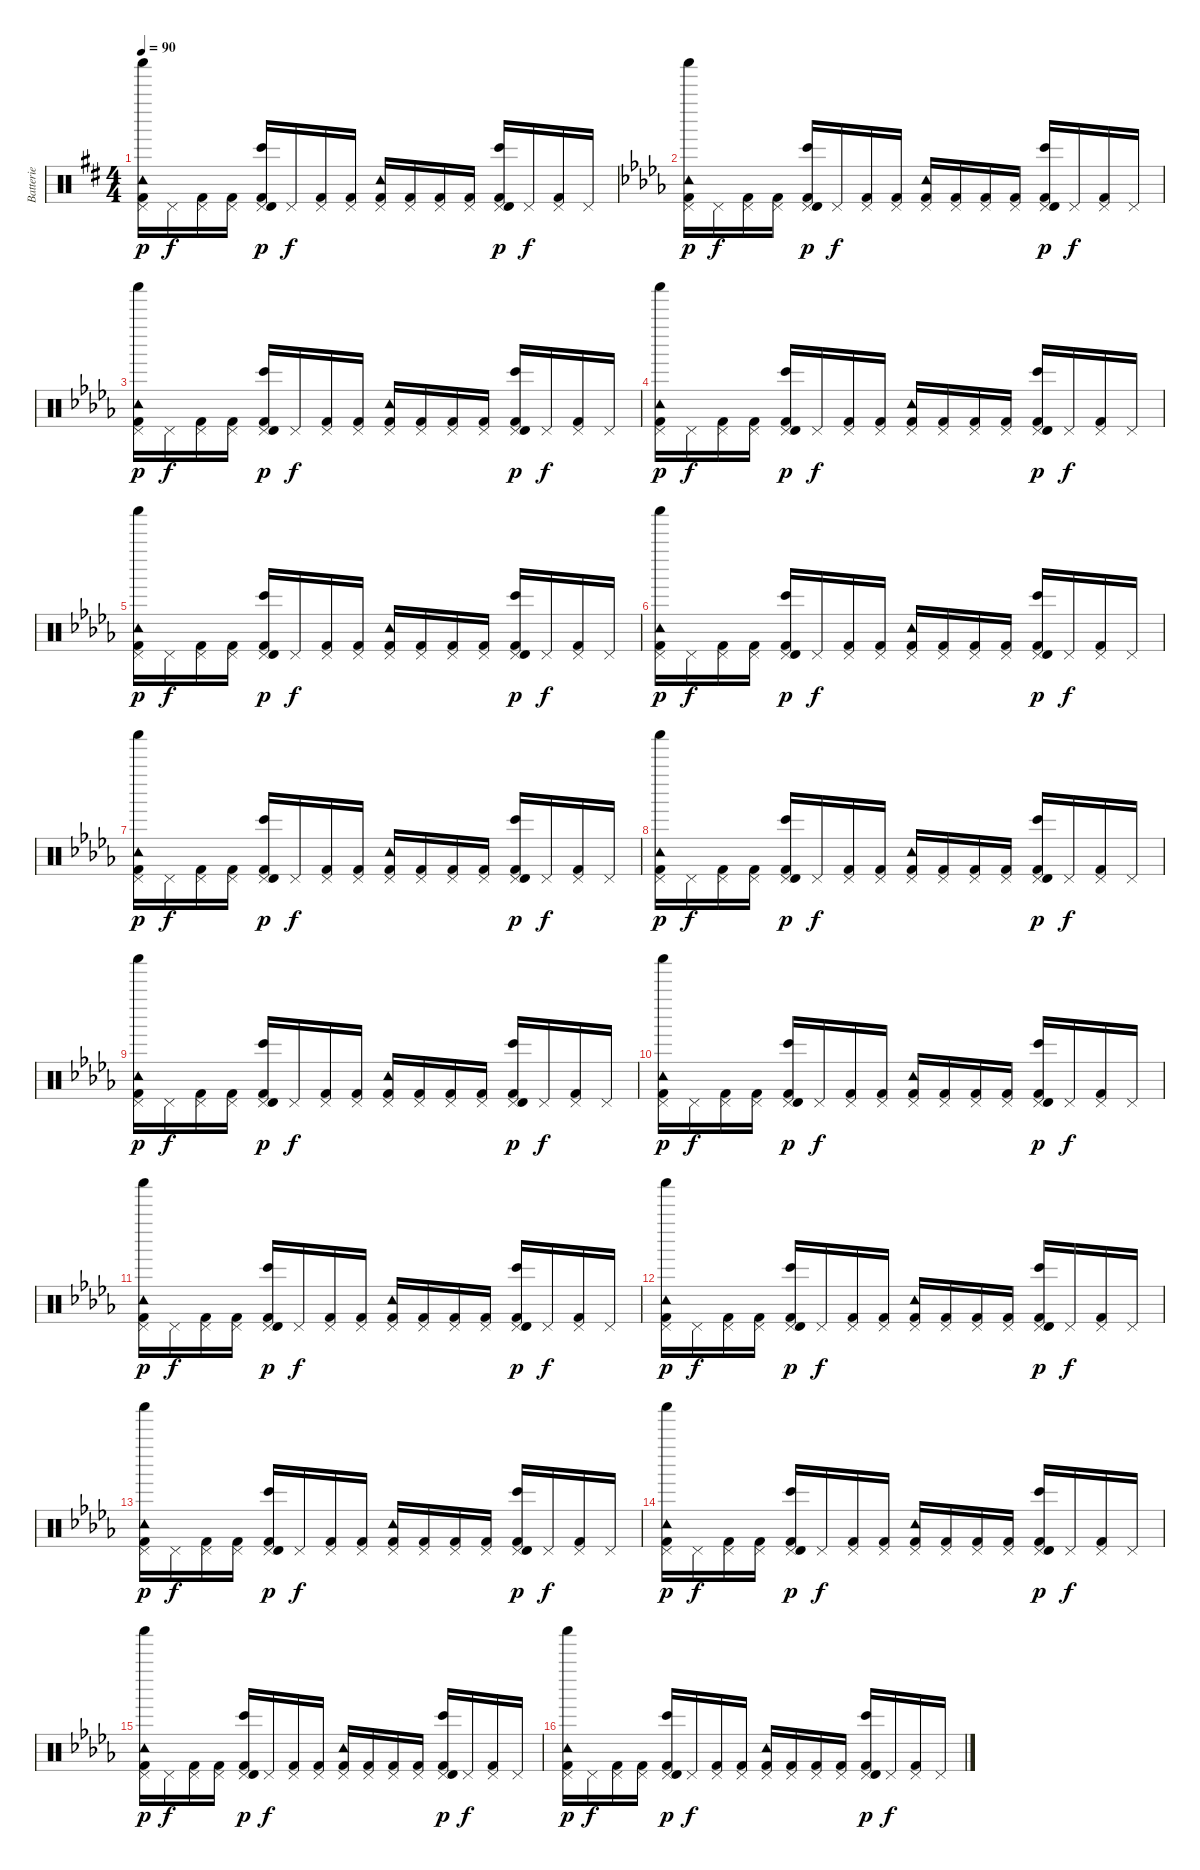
\track ("Batterie" "Batterie") {instrument percussion}
\staff {score}
\articulation defaults
\ts (4 4)
\tempo 90
\clef neutral
\ks d
("Shaker (hit)" "Tambourine (hit)" "Pedal Hi-Hat (hit)" "Kick (hit) 2").16{dy p} "Pedal Hi-Hat (hit)".16{dy f} ("Pedal Hi-Hat (hit)" "Kick (hit) 2").16 ("Pedal Hi-Hat (hit)" "Kick (hit) 2").16 ("Pedal Hi-Hat (hit)" "Bongo High (hit)" "Timbale high (hit)" "Kick (hit) 2").16{dy p} "Pedal Hi-Hat (hit)".16{dy f} ("Pedal Hi-Hat (hit)" "Kick (hit) 2").16 ("Pedal Hi-Hat (hit)" "Kick (hit) 2").16 ("Tambourine (hit)" "Pedal Hi-Hat (hit)" "Kick (hit) 2").16 ("Pedal Hi-Hat (hit)" "Kick (hit) 2").16 ("Pedal Hi-Hat (hit)" "Kick (hit) 2").16 ("Pedal Hi-Hat (hit)" "Kick (hit) 2").16 ("Pedal Hi-Hat (hit)" "Bongo High (hit)" "Timbale high (hit)" "Kick (hit) 2").16{dy p} "Pedal Hi-Hat (hit)".16{dy f} ("Pedal Hi-Hat (hit)" "Kick (hit) 2").16 "Pedal Hi-Hat (hit)".16 |
\ks db
("Shaker (hit)" "Tambourine (hit)" "Pedal Hi-Hat (hit)" "Kick (hit) 2").16{dy p} "Pedal Hi-Hat (hit)".16{dy f} ("Pedal Hi-Hat (hit)" "Kick (hit) 2").16 ("Pedal Hi-Hat (hit)" "Kick (hit) 2").16 ("Pedal Hi-Hat (hit)" "Bongo High (hit)" "Timbale high (hit)" "Kick (hit) 2").16{dy p} "Pedal Hi-Hat (hit)".16{dy f} ("Pedal Hi-Hat (hit)" "Kick (hit) 2").16 ("Pedal Hi-Hat (hit)" "Kick (hit) 2").16 ("Tambourine (hit)" "Pedal Hi-Hat (hit)" "Kick (hit) 2").16 ("Pedal Hi-Hat (hit)" "Kick (hit) 2").16 ("Pedal Hi-Hat (hit)" "Kick (hit) 2").16 ("Pedal Hi-Hat (hit)" "Kick (hit) 2").16 ("Pedal Hi-Hat (hit)" "Bongo High (hit)" "Timbale high (hit)" "Kick (hit) 2").16{dy p} "Pedal Hi-Hat (hit)".16{dy f} ("Pedal Hi-Hat (hit)" "Kick (hit) 2").16 "Pedal Hi-Hat (hit)".16 |
("Shaker (hit)" "Tambourine (hit)" "Pedal Hi-Hat (hit)" "Kick (hit) 2").16{dy p} "Pedal Hi-Hat (hit)".16{dy f} ("Pedal Hi-Hat (hit)" "Kick (hit) 2").16 ("Pedal Hi-Hat (hit)" "Kick (hit) 2").16 ("Pedal Hi-Hat (hit)" "Bongo High (hit)" "Timbale high (hit)" "Kick (hit) 2").16{dy p} "Pedal Hi-Hat (hit)".16{dy f} ("Pedal Hi-Hat (hit)" "Kick (hit) 2").16 ("Pedal Hi-Hat (hit)" "Kick (hit) 2").16 ("Tambourine (hit)" "Pedal Hi-Hat (hit)" "Kick (hit) 2").16 ("Pedal Hi-Hat (hit)" "Kick (hit) 2").16 ("Pedal Hi-Hat (hit)" "Kick (hit) 2").16 ("Pedal Hi-Hat (hit)" "Kick (hit) 2").16 ("Pedal Hi-Hat (hit)" "Bongo High (hit)" "Timbale high (hit)" "Kick (hit) 2").16{dy p} "Pedal Hi-Hat (hit)".16{dy f} ("Pedal Hi-Hat (hit)" "Kick (hit) 2").16 "Pedal Hi-Hat (hit)".16 |
("Shaker (hit)" "Tambourine (hit)" "Pedal Hi-Hat (hit)" "Kick (hit) 2").16{dy p} "Pedal Hi-Hat (hit)".16{dy f} ("Pedal Hi-Hat (hit)" "Kick (hit) 2").16 ("Pedal Hi-Hat (hit)" "Kick (hit) 2").16 ("Pedal Hi-Hat (hit)" "Bongo High (hit)" "Timbale high (hit)" "Kick (hit) 2").16{dy p} "Pedal Hi-Hat (hit)".16{dy f} ("Pedal Hi-Hat (hit)" "Kick (hit) 2").16 ("Pedal Hi-Hat (hit)" "Kick (hit) 2").16 ("Tambourine (hit)" "Pedal Hi-Hat (hit)" "Kick (hit) 2").16 ("Pedal Hi-Hat (hit)" "Kick (hit) 2").16 ("Pedal Hi-Hat (hit)" "Kick (hit) 2").16 ("Pedal Hi-Hat (hit)" "Kick (hit) 2").16 ("Pedal Hi-Hat (hit)" "Bongo High (hit)" "Timbale high (hit)" "Kick (hit) 2").16{dy p} "Pedal Hi-Hat (hit)".16{dy f} ("Pedal Hi-Hat (hit)" "Kick (hit) 2").16 "Pedal Hi-Hat (hit)".16 |
("Shaker (hit)" "Tambourine (hit)" "Pedal Hi-Hat (hit)" "Kick (hit) 2").16{dy p} "Pedal Hi-Hat (hit)".16{dy f} ("Pedal Hi-Hat (hit)" "Kick (hit) 2").16 ("Pedal Hi-Hat (hit)" "Kick (hit) 2").16 ("Pedal Hi-Hat (hit)" "Bongo High (hit)" "Timbale high (hit)" "Kick (hit) 2").16{dy p} "Pedal Hi-Hat (hit)".16{dy f} ("Pedal Hi-Hat (hit)" "Kick (hit) 2").16 ("Pedal Hi-Hat (hit)" "Kick (hit) 2").16 ("Tambourine (hit)" "Pedal Hi-Hat (hit)" "Kick (hit) 2").16 ("Pedal Hi-Hat (hit)" "Kick (hit) 2").16 ("Pedal Hi-Hat (hit)" "Kick (hit) 2").16 ("Pedal Hi-Hat (hit)" "Kick (hit) 2").16 ("Pedal Hi-Hat (hit)" "Bongo High (hit)" "Timbale high (hit)" "Kick (hit) 2").16{dy p} "Pedal Hi-Hat (hit)".16{dy f} ("Pedal Hi-Hat (hit)" "Kick (hit) 2").16 "Pedal Hi-Hat (hit)".16 |
("Shaker (hit)" "Tambourine (hit)" "Pedal Hi-Hat (hit)" "Kick (hit) 2").16{dy p} "Pedal Hi-Hat (hit)".16{dy f} ("Pedal Hi-Hat (hit)" "Kick (hit) 2").16 ("Pedal Hi-Hat (hit)" "Kick (hit) 2").16 ("Pedal Hi-Hat (hit)" "Bongo High (hit)" "Timbale high (hit)" "Kick (hit) 2").16{dy p} "Pedal Hi-Hat (hit)".16{dy f} ("Pedal Hi-Hat (hit)" "Kick (hit) 2").16 ("Pedal Hi-Hat (hit)" "Kick (hit) 2").16 ("Tambourine (hit)" "Pedal Hi-Hat (hit)" "Kick (hit) 2").16 ("Pedal Hi-Hat (hit)" "Kick (hit) 2").16 ("Pedal Hi-Hat (hit)" "Kick (hit) 2").16 ("Pedal Hi-Hat (hit)" "Kick (hit) 2").16 ("Pedal Hi-Hat (hit)" "Bongo High (hit)" "Timbale high (hit)" "Kick (hit) 2").16{dy p} "Pedal Hi-Hat (hit)".16{dy f} ("Pedal Hi-Hat (hit)" "Kick (hit) 2").16 "Pedal Hi-Hat (hit)".16 |
("Shaker (hit)" "Tambourine (hit)" "Pedal Hi-Hat (hit)" "Kick (hit) 2").16{dy p} "Pedal Hi-Hat (hit)".16{dy f} ("Pedal Hi-Hat (hit)" "Kick (hit) 2").16 ("Pedal Hi-Hat (hit)" "Kick (hit) 2").16 ("Pedal Hi-Hat (hit)" "Bongo High (hit)" "Timbale high (hit)" "Kick (hit) 2").16{dy p} "Pedal Hi-Hat (hit)".16{dy f} ("Pedal Hi-Hat (hit)" "Kick (hit) 2").16 ("Pedal Hi-Hat (hit)" "Kick (hit) 2").16 ("Tambourine (hit)" "Pedal Hi-Hat (hit)" "Kick (hit) 2").16 ("Pedal Hi-Hat (hit)" "Kick (hit) 2").16 ("Pedal Hi-Hat (hit)" "Kick (hit) 2").16 ("Pedal Hi-Hat (hit)" "Kick (hit) 2").16 ("Pedal Hi-Hat (hit)" "Bongo High (hit)" "Timbale high (hit)" "Kick (hit) 2").16{dy p} "Pedal Hi-Hat (hit)".16{dy f} ("Pedal Hi-Hat (hit)" "Kick (hit) 2").16 "Pedal Hi-Hat (hit)".16 |
("Shaker (hit)" "Tambourine (hit)" "Pedal Hi-Hat (hit)" "Kick (hit) 2").16{dy p} "Pedal Hi-Hat (hit)".16{dy f} ("Pedal Hi-Hat (hit)" "Kick (hit) 2").16 ("Pedal Hi-Hat (hit)" "Kick (hit) 2").16 ("Pedal Hi-Hat (hit)" "Bongo High (hit)" "Timbale high (hit)" "Kick (hit) 2").16{dy p} "Pedal Hi-Hat (hit)".16{dy f} ("Pedal Hi-Hat (hit)" "Kick (hit) 2").16 ("Pedal Hi-Hat (hit)" "Kick (hit) 2").16 ("Tambourine (hit)" "Pedal Hi-Hat (hit)" "Kick (hit) 2").16 ("Pedal Hi-Hat (hit)" "Kick (hit) 2").16 ("Pedal Hi-Hat (hit)" "Kick (hit) 2").16 ("Pedal Hi-Hat (hit)" "Kick (hit) 2").16 ("Pedal Hi-Hat (hit)" "Bongo High (hit)" "Timbale high (hit)" "Kick (hit) 2").16{dy p} "Pedal Hi-Hat (hit)".16{dy f} ("Pedal Hi-Hat (hit)" "Kick (hit) 2").16 "Pedal Hi-Hat (hit)".16 |
("Shaker (hit)" "Tambourine (hit)" "Pedal Hi-Hat (hit)" "Kick (hit) 2").16{dy p} "Pedal Hi-Hat (hit)".16{dy f} ("Pedal Hi-Hat (hit)" "Kick (hit) 2").16 ("Pedal Hi-Hat (hit)" "Kick (hit) 2").16 ("Pedal Hi-Hat (hit)" "Bongo High (hit)" "Timbale high (hit)" "Kick (hit) 2").16{dy p} "Pedal Hi-Hat (hit)".16{dy f} ("Pedal Hi-Hat (hit)" "Kick (hit) 2").16 ("Pedal Hi-Hat (hit)" "Kick (hit) 2").16 ("Tambourine (hit)" "Pedal Hi-Hat (hit)" "Kick (hit) 2").16 ("Pedal Hi-Hat (hit)" "Kick (hit) 2").16 ("Pedal Hi-Hat (hit)" "Kick (hit) 2").16 ("Pedal Hi-Hat (hit)" "Kick (hit) 2").16 ("Pedal Hi-Hat (hit)" "Bongo High (hit)" "Timbale high (hit)" "Kick (hit) 2").16{dy p} "Pedal Hi-Hat (hit)".16{dy f} ("Pedal Hi-Hat (hit)" "Kick (hit) 2").16 "Pedal Hi-Hat (hit)".16 |
("Shaker (hit)" "Tambourine (hit)" "Pedal Hi-Hat (hit)" "Kick (hit) 2").16{dy p} "Pedal Hi-Hat (hit)".16{dy f} ("Pedal Hi-Hat (hit)" "Kick (hit) 2").16 ("Pedal Hi-Hat (hit)" "Kick (hit) 2").16 ("Pedal Hi-Hat (hit)" "Bongo High (hit)" "Timbale high (hit)" "Kick (hit) 2").16{dy p} "Pedal Hi-Hat (hit)".16{dy f} ("Pedal Hi-Hat (hit)" "Kick (hit) 2").16 ("Pedal Hi-Hat (hit)" "Kick (hit) 2").16 ("Tambourine (hit)" "Pedal Hi-Hat (hit)" "Kick (hit) 2").16 ("Pedal Hi-Hat (hit)" "Kick (hit) 2").16 ("Pedal Hi-Hat (hit)" "Kick (hit) 2").16 ("Pedal Hi-Hat (hit)" "Kick (hit) 2").16 ("Pedal Hi-Hat (hit)" "Bongo High (hit)" "Timbale high (hit)" "Kick (hit) 2").16{dy p} "Pedal Hi-Hat (hit)".16{dy f} ("Pedal Hi-Hat (hit)" "Kick (hit) 2").16 "Pedal Hi-Hat (hit)".16 |
("Shaker (hit)" "Tambourine (hit)" "Pedal Hi-Hat (hit)" "Kick (hit) 2").16{dy p} "Pedal Hi-Hat (hit)".16{dy f} ("Pedal Hi-Hat (hit)" "Kick (hit) 2").16 ("Pedal Hi-Hat (hit)" "Kick (hit) 2").16 ("Pedal Hi-Hat (hit)" "Bongo High (hit)" "Timbale high (hit)" "Kick (hit) 2").16{dy p} "Pedal Hi-Hat (hit)".16{dy f} ("Pedal Hi-Hat (hit)" "Kick (hit) 2").16 ("Pedal Hi-Hat (hit)" "Kick (hit) 2").16 ("Tambourine (hit)" "Pedal Hi-Hat (hit)" "Kick (hit) 2").16 ("Pedal Hi-Hat (hit)" "Kick (hit) 2").16 ("Pedal Hi-Hat (hit)" "Kick (hit) 2").16 ("Pedal Hi-Hat (hit)" "Kick (hit) 2").16 ("Pedal Hi-Hat (hit)" "Bongo High (hit)" "Timbale high (hit)" "Kick (hit) 2").16{dy p} "Pedal Hi-Hat (hit)".16{dy f} ("Pedal Hi-Hat (hit)" "Kick (hit) 2").16 "Pedal Hi-Hat (hit)".16 |
("Shaker (hit)" "Tambourine (hit)" "Pedal Hi-Hat (hit)" "Kick (hit) 2").16{dy p} "Pedal Hi-Hat (hit)".16{dy f} ("Pedal Hi-Hat (hit)" "Kick (hit) 2").16 ("Pedal Hi-Hat (hit)" "Kick (hit) 2").16 ("Pedal Hi-Hat (hit)" "Bongo High (hit)" "Timbale high (hit)" "Kick (hit) 2").16{dy p} "Pedal Hi-Hat (hit)".16{dy f} ("Pedal Hi-Hat (hit)" "Kick (hit) 2").16 ("Pedal Hi-Hat (hit)" "Kick (hit) 2").16 ("Tambourine (hit)" "Pedal Hi-Hat (hit)" "Kick (hit) 2").16 ("Pedal Hi-Hat (hit)" "Kick (hit) 2").16 ("Pedal Hi-Hat (hit)" "Kick (hit) 2").16 ("Pedal Hi-Hat (hit)" "Kick (hit) 2").16 ("Pedal Hi-Hat (hit)" "Bongo High (hit)" "Timbale high (hit)" "Kick (hit) 2").16{dy p} "Pedal Hi-Hat (hit)".16{dy f} ("Pedal Hi-Hat (hit)" "Kick (hit) 2").16 "Pedal Hi-Hat (hit)".16 |
("Shaker (hit)" "Tambourine (hit)" "Pedal Hi-Hat (hit)" "Kick (hit) 2").16{dy p} "Pedal Hi-Hat (hit)".16{dy f} ("Pedal Hi-Hat (hit)" "Kick (hit) 2").16 ("Pedal Hi-Hat (hit)" "Kick (hit) 2").16 ("Pedal Hi-Hat (hit)" "Bongo High (hit)" "Timbale high (hit)" "Kick (hit) 2").16{dy p} "Pedal Hi-Hat (hit)".16{dy f} ("Pedal Hi-Hat (hit)" "Kick (hit) 2").16 ("Pedal Hi-Hat (hit)" "Kick (hit) 2").16 ("Tambourine (hit)" "Pedal Hi-Hat (hit)" "Kick (hit) 2").16 ("Pedal Hi-Hat (hit)" "Kick (hit) 2").16 ("Pedal Hi-Hat (hit)" "Kick (hit) 2").16 ("Pedal Hi-Hat (hit)" "Kick (hit) 2").16 ("Pedal Hi-Hat (hit)" "Bongo High (hit)" "Timbale high (hit)" "Kick (hit) 2").16{dy p} "Pedal Hi-Hat (hit)".16{dy f} ("Pedal Hi-Hat (hit)" "Kick (hit) 2").16 "Pedal Hi-Hat (hit)".16 |
("Shaker (hit)" "Tambourine (hit)" "Pedal Hi-Hat (hit)" "Kick (hit) 2").16{dy p} "Pedal Hi-Hat (hit)".16{dy f} ("Pedal Hi-Hat (hit)" "Kick (hit) 2").16 ("Pedal Hi-Hat (hit)" "Kick (hit) 2").16 ("Pedal Hi-Hat (hit)" "Bongo High (hit)" "Timbale high (hit)" "Kick (hit) 2").16{dy p} "Pedal Hi-Hat (hit)".16{dy f} ("Pedal Hi-Hat (hit)" "Kick (hit) 2").16 ("Pedal Hi-Hat (hit)" "Kick (hit) 2").16 ("Tambourine (hit)" "Pedal Hi-Hat (hit)" "Kick (hit) 2").16 ("Pedal Hi-Hat (hit)" "Kick (hit) 2").16 ("Pedal Hi-Hat (hit)" "Kick (hit) 2").16 ("Pedal Hi-Hat (hit)" "Kick (hit) 2").16 ("Pedal Hi-Hat (hit)" "Bongo High (hit)" "Timbale high (hit)" "Kick (hit) 2").16{dy p} "Pedal Hi-Hat (hit)".16{dy f} ("Pedal Hi-Hat (hit)" "Kick (hit) 2").16 "Pedal Hi-Hat (hit)".16 |
("Shaker (hit)" "Tambourine (hit)" "Pedal Hi-Hat (hit)" "Kick (hit) 2").16{dy p} "Pedal Hi-Hat (hit)".16{dy f} ("Pedal Hi-Hat (hit)" "Kick (hit) 2").16 ("Pedal Hi-Hat (hit)" "Kick (hit) 2").16 ("Pedal Hi-Hat (hit)" "Bongo High (hit)" "Timbale high (hit)" "Kick (hit) 2").16{dy p} "Pedal Hi-Hat (hit)".16{dy f} ("Pedal Hi-Hat (hit)" "Kick (hit) 2").16 ("Pedal Hi-Hat (hit)" "Kick (hit) 2").16 ("Tambourine (hit)" "Pedal Hi-Hat (hit)" "Kick (hit) 2").16 ("Pedal Hi-Hat (hit)" "Kick (hit) 2").16 ("Pedal Hi-Hat (hit)" "Kick (hit) 2").16 ("Pedal Hi-Hat (hit)" "Kick (hit) 2").16 ("Pedal Hi-Hat (hit)" "Bongo High (hit)" "Timbale high (hit)" "Kick (hit) 2").16{dy p} "Pedal Hi-Hat (hit)".16{dy f} ("Pedal Hi-Hat (hit)" "Kick (hit) 2").16 "Pedal Hi-Hat (hit)".16 |
("Shaker (hit)" "Tambourine (hit)" "Pedal Hi-Hat (hit)" "Kick (hit) 2").16{dy p} "Pedal Hi-Hat (hit)".16{dy f} ("Pedal Hi-Hat (hit)" "Kick (hit) 2").16 ("Pedal Hi-Hat (hit)" "Kick (hit) 2").16 ("Pedal Hi-Hat (hit)" "Bongo High (hit)" "Timbale high (hit)" "Kick (hit) 2").16{dy p} "Pedal Hi-Hat (hit)".16{dy f} ("Pedal Hi-Hat (hit)" "Kick (hit) 2").16 ("Pedal Hi-Hat (hit)" "Kick (hit) 2").16 ("Tambourine (hit)" "Pedal Hi-Hat (hit)" "Kick (hit) 2").16 ("Pedal Hi-Hat (hit)" "Kick (hit) 2").16 ("Pedal Hi-Hat (hit)" "Kick (hit) 2").16 ("Pedal Hi-Hat (hit)" "Kick (hit) 2").16 ("Pedal Hi-Hat (hit)" "Bongo High (hit)" "Timbale high (hit)" "Kick (hit) 2").16{dy p} "Pedal Hi-Hat (hit)".16{dy f} ("Pedal Hi-Hat (hit)" "Kick (hit) 2").16 "Pedal Hi-Hat (hit)".16
